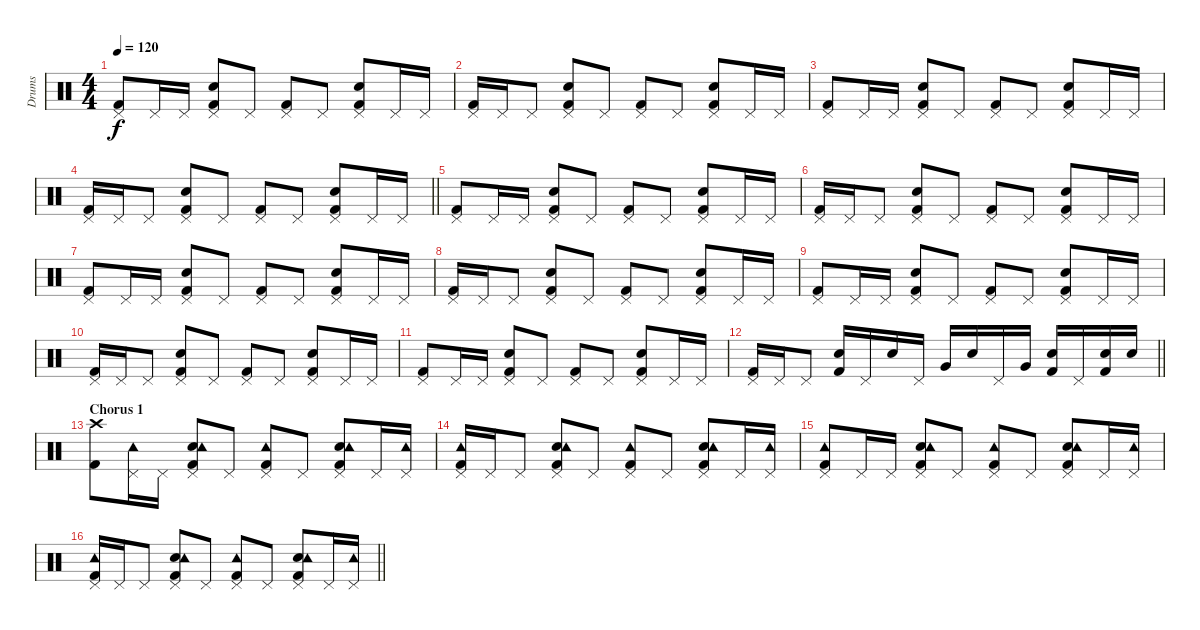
\track ("Drums" "Drums") {instrument percussion}
\staff {score}
\articulation defaults
\ts (4 4)
\tempo 120
\clef neutral
\ks c
("Kick (hit) 2" "Pedal Hi-Hat (hit)").8{dy f} "Pedal Hi-Hat (hit)".16 "Pedal Hi-Hat (hit)".16 ("Kick (hit) 2" "Snare (hit) 2" "Pedal Hi-Hat (hit)").8 "Pedal Hi-Hat (hit)".8 ("Kick (hit) 2" "Pedal Hi-Hat (hit)").8 "Pedal Hi-Hat (hit)".8 ("Kick (hit) 2" "Snare (hit) 2" "Pedal Hi-Hat (hit)").8 "Pedal Hi-Hat (hit)".16 "Pedal Hi-Hat (hit)".16 |
("Kick (hit) 2" "Pedal Hi-Hat (hit)").16 "Pedal Hi-Hat (hit)".16 "Pedal Hi-Hat (hit)".8 ("Kick (hit) 2" "Snare (hit) 2" "Pedal Hi-Hat (hit)").8 "Pedal Hi-Hat (hit)".8 ("Kick (hit) 2" "Pedal Hi-Hat (hit)").8 "Pedal Hi-Hat (hit)".8 ("Kick (hit) 2" "Snare (hit) 2" "Pedal Hi-Hat (hit)").8 "Pedal Hi-Hat (hit)".16 "Pedal Hi-Hat (hit)".16 |
("Kick (hit) 2" "Pedal Hi-Hat (hit)").8 "Pedal Hi-Hat (hit)".16 "Pedal Hi-Hat (hit)".16 ("Kick (hit) 2" "Snare (hit) 2" "Pedal Hi-Hat (hit)").8 "Pedal Hi-Hat (hit)".8 ("Kick (hit) 2" "Pedal Hi-Hat (hit)").8 "Pedal Hi-Hat (hit)".8 ("Kick (hit) 2" "Snare (hit) 2" "Pedal Hi-Hat (hit)").8 "Pedal Hi-Hat (hit)".16 "Pedal Hi-Hat (hit)".16 |
\barLineRight lightlight
("Kick (hit) 2" "Pedal Hi-Hat (hit)").16 "Pedal Hi-Hat (hit)".16 "Pedal Hi-Hat (hit)".8 ("Kick (hit) 2" "Snare (hit) 2" "Pedal Hi-Hat (hit)").8 "Pedal Hi-Hat (hit)".8 ("Kick (hit) 2" "Pedal Hi-Hat (hit)").8 "Pedal Hi-Hat (hit)".8 ("Kick (hit) 2" "Snare (hit) 2" "Pedal Hi-Hat (hit)").8 "Pedal Hi-Hat (hit)".16 "Pedal Hi-Hat (hit)".16 |
("Kick (hit) 2" "Pedal Hi-Hat (hit)").8 "Pedal Hi-Hat (hit)".16 "Pedal Hi-Hat (hit)".16 ("Kick (hit) 2" "Snare (hit) 2" "Pedal Hi-Hat (hit)").8 "Pedal Hi-Hat (hit)".8 ("Kick (hit) 2" "Pedal Hi-Hat (hit)").8 "Pedal Hi-Hat (hit)".8 ("Kick (hit) 2" "Snare (hit) 2" "Pedal Hi-Hat (hit)").8 "Pedal Hi-Hat (hit)".16 "Pedal Hi-Hat (hit)".16 |
("Kick (hit) 2" "Pedal Hi-Hat (hit)").16 "Pedal Hi-Hat (hit)".16 "Pedal Hi-Hat (hit)".8 ("Kick (hit) 2" "Snare (hit) 2" "Pedal Hi-Hat (hit)").8 "Pedal Hi-Hat (hit)".8 ("Kick (hit) 2" "Pedal Hi-Hat (hit)").8 "Pedal Hi-Hat (hit)".8 ("Kick (hit) 2" "Snare (hit) 2" "Pedal Hi-Hat (hit)").8 "Pedal Hi-Hat (hit)".16 "Pedal Hi-Hat (hit)".16 |
("Kick (hit) 2" "Pedal Hi-Hat (hit)").8 "Pedal Hi-Hat (hit)".16 "Pedal Hi-Hat (hit)".16 ("Kick (hit) 2" "Snare (hit) 2" "Pedal Hi-Hat (hit)").8 "Pedal Hi-Hat (hit)".8 ("Kick (hit) 2" "Pedal Hi-Hat (hit)").8 "Pedal Hi-Hat (hit)".8 ("Kick (hit) 2" "Snare (hit) 2" "Pedal Hi-Hat (hit)").8 "Pedal Hi-Hat (hit)".16 "Pedal Hi-Hat (hit)".16 |
("Kick (hit) 2" "Pedal Hi-Hat (hit)").16 "Pedal Hi-Hat (hit)".16 "Pedal Hi-Hat (hit)".8 ("Kick (hit) 2" "Snare (hit) 2" "Pedal Hi-Hat (hit)").8 "Pedal Hi-Hat (hit)".8 ("Kick (hit) 2" "Pedal Hi-Hat (hit)").8 "Pedal Hi-Hat (hit)".8 ("Kick (hit) 2" "Snare (hit) 2" "Pedal Hi-Hat (hit)").8 "Pedal Hi-Hat (hit)".16 "Pedal Hi-Hat (hit)".16 |
("Kick (hit) 2" "Pedal Hi-Hat (hit)").8 "Pedal Hi-Hat (hit)".16 "Pedal Hi-Hat (hit)".16 ("Kick (hit) 2" "Snare (hit) 2" "Pedal Hi-Hat (hit)").8 "Pedal Hi-Hat (hit)".8 ("Kick (hit) 2" "Pedal Hi-Hat (hit)").8 "Pedal Hi-Hat (hit)".8 ("Kick (hit) 2" "Snare (hit) 2" "Pedal Hi-Hat (hit)").8 "Pedal Hi-Hat (hit)".16 "Pedal Hi-Hat (hit)".16 |
("Kick (hit) 2" "Pedal Hi-Hat (hit)").16 "Pedal Hi-Hat (hit)".16 "Pedal Hi-Hat (hit)".8 ("Kick (hit) 2" "Snare (hit) 2" "Pedal Hi-Hat (hit)").8 "Pedal Hi-Hat (hit)".8 ("Kick (hit) 2" "Pedal Hi-Hat (hit)").8 "Pedal Hi-Hat (hit)".8 ("Kick (hit) 2" "Snare (hit) 2" "Pedal Hi-Hat (hit)").8 "Pedal Hi-Hat (hit)".16 "Pedal Hi-Hat (hit)".16 |
("Kick (hit) 2" "Pedal Hi-Hat (hit)").8 "Pedal Hi-Hat (hit)".16 "Pedal Hi-Hat (hit)".16 ("Kick (hit) 2" "Snare (hit) 2" "Pedal Hi-Hat (hit)").8 "Pedal Hi-Hat (hit)".8 ("Kick (hit) 2" "Pedal Hi-Hat (hit)").8 "Pedal Hi-Hat (hit)".8 ("Kick (hit) 2" "Snare (hit) 2" "Pedal Hi-Hat (hit)").8 "Pedal Hi-Hat (hit)".16 "Pedal Hi-Hat (hit)".16 |
\barLineRight lightlight
("Kick (hit) 2" "Pedal Hi-Hat (hit)").16 "Pedal Hi-Hat (hit)".16 "Pedal Hi-Hat (hit)".8 ("Kick (hit) 2" "Snare (hit) 2").16 "Pedal Hi-Hat (hit)".16 "Snare (hit) 2".16 "Pedal Hi-Hat (hit)".16 "Very Low Tom (hit)".16 "Snare (hit) 2".16 "Pedal Hi-Hat (hit)".16 "Very Low Tom (hit)".16 ("Kick (hit) 2" "Snare (hit) 2").16 "Pedal Hi-Hat (hit)".16 ("Kick (hit) 2" "Snare (hit) 2").16 "Snare (hit) 2".16 |
\section ("" "Chorus 1")
("Kick (hit) 2" "Crash high (hit)").8 ("Tambourine (hit)" "Pedal Hi-Hat (hit)").16 "Pedal Hi-Hat (hit)".16 ("Kick (hit) 2" "Snare (hit) 2" "Tambourine (hit)" "Pedal Hi-Hat (hit)").8 "Pedal Hi-Hat (hit)".8 ("Kick (hit) 2" "Tambourine (hit)" "Pedal Hi-Hat (hit)").8 "Pedal Hi-Hat (hit)".8 ("Kick (hit) 2" "Snare (hit) 2" "Tambourine (hit)" "Pedal Hi-Hat (hit)").8 "Pedal Hi-Hat (hit)".16 ("Tambourine (hit)" "Pedal Hi-Hat (hit)").16 |
("Kick (hit) 2" "Tambourine (hit)" "Pedal Hi-Hat (hit)").16 "Pedal Hi-Hat (hit)".16 "Pedal Hi-Hat (hit)".8 ("Kick (hit) 2" "Snare (hit) 2" "Tambourine (hit)" "Pedal Hi-Hat (hit)").8 "Pedal Hi-Hat (hit)".8 ("Kick (hit) 2" "Tambourine (hit)" "Pedal Hi-Hat (hit)").8 "Pedal Hi-Hat (hit)".8 ("Kick (hit) 2" "Snare (hit) 2" "Tambourine (hit)" "Pedal Hi-Hat (hit)").8 "Pedal Hi-Hat (hit)".16 ("Tambourine (hit)" "Pedal Hi-Hat (hit)").16 |
("Kick (hit) 2" "Tambourine (hit)" "Pedal Hi-Hat (hit)").8 "Pedal Hi-Hat (hit)".16 "Pedal Hi-Hat (hit)".16 ("Kick (hit) 2" "Snare (hit) 2" "Tambourine (hit)" "Pedal Hi-Hat (hit)").8 "Pedal Hi-Hat (hit)".8 ("Kick (hit) 2" "Tambourine (hit)" "Pedal Hi-Hat (hit)").8 "Pedal Hi-Hat (hit)".8 ("Kick (hit) 2" "Snare (hit) 2" "Tambourine (hit)" "Pedal Hi-Hat (hit)").8 "Pedal Hi-Hat (hit)".16 ("Tambourine (hit)" "Pedal Hi-Hat (hit)").16 |
\barLineRight lightlight
("Kick (hit) 2" "Tambourine (hit)" "Pedal Hi-Hat (hit)").16 "Pedal Hi-Hat (hit)".16 "Pedal Hi-Hat (hit)".8 ("Kick (hit) 2" "Snare (hit) 2" "Tambourine (hit)" "Pedal Hi-Hat (hit)").8 "Pedal Hi-Hat (hit)".8 ("Kick (hit) 2" "Tambourine (hit)" "Pedal Hi-Hat (hit)").8 "Pedal Hi-Hat (hit)".8 ("Kick (hit) 2" "Snare (hit) 2" "Tambourine (hit)" "Pedal Hi-Hat (hit)").8 "Pedal Hi-Hat (hit)".16 ("Tambourine (hit)" "Pedal Hi-Hat (hit)").16
